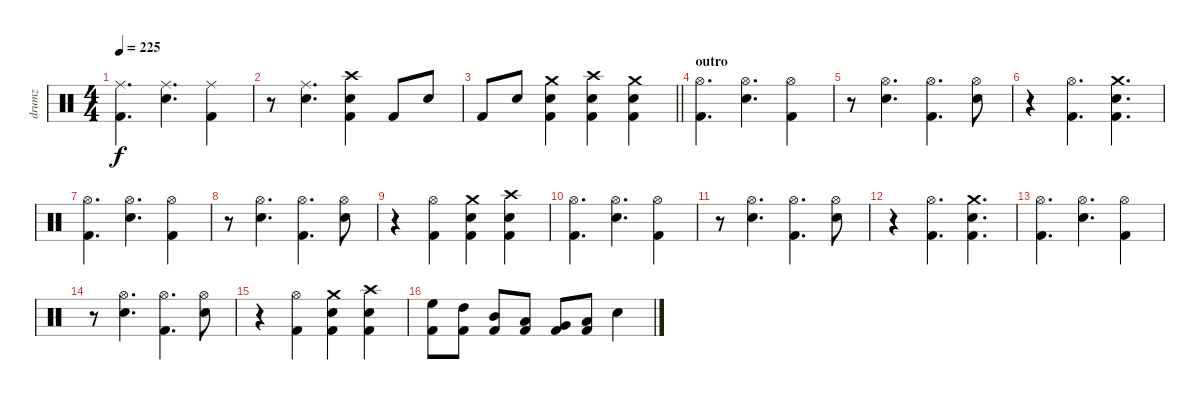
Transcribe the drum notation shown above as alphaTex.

\track ("drumz" "drumz") {instrument percussion}
\staff {score}
\articulation defaults
\ts (4 4)
\tempo 225
\clef neutral
\ks c
("Ride (middle)" "Kick (hit) 2").4{d dy f} ("Ride (middle)" "Electric Snare (hit)").4{d} ("Ride (middle)" "Kick (hit) 2").4 |
r.8 ("Ride (middle)" "Electric Snare (hit)").4{d} ("Crash high (hit)" "Electric Snare (hit)" "Kick (hit) 2").4 "Kick (hit) 2".8 "Electric Snare (hit)".8 |
\barLineRight lightlight "Kick (hit) 2".8 "Electric Snare (hit)".8
("Crash medium (hit)" "Electric Snare (hit)" "Kick (hit) 2").4 ("Crash high (hit)" "Electric Snare (hit)" "Kick (hit) 2").4 ("Crash medium (hit)" "Electric Snare (hit)" "Kick (hit) 2").4 |
\section ("" "outro")
("Hi-Hat (open)" "Kick (hit) 2").4{d} ("Hi-Hat (open)" "Electric Snare (hit)").4{d} ("Hi-Hat (open)" "Kick (hit) 2").4 |
r.8 ("Hi-Hat (open)" "Electric Snare (hit)").4{d} ("Hi-Hat (open)" "Kick (hit) 2").4{d} ("Hi-Hat (open)" "Electric Snare (hit)").8 |
r.4 ("Hi-Hat (open)" "Kick (hit) 2").4{d} ("Crash medium (hit)" "Electric Snare (hit)" "Kick (hit) 2").4{d} |
("Hi-Hat (open)" "Kick (hit) 2").4{d} ("Hi-Hat (open)" "Electric Snare (hit)").4{d} ("Hi-Hat (open)" "Kick (hit) 2").4 |
r.8 ("Hi-Hat (open)" "Electric Snare (hit)").4{d} ("Hi-Hat (open)" "Kick (hit) 2").4{d} ("Hi-Hat (open)" "Electric Snare (hit)").8 |
r.4 ("Hi-Hat (open)" "Kick (hit) 2").4 ("Crash medium (hit)" "Electric Snare (hit)" "Kick (hit) 2").4 ("Crash high (hit)" "Electric Snare (hit)" "Kick (hit) 2").4 |
("Hi-Hat (open)" "Kick (hit) 2").4{d} ("Hi-Hat (open)" "Electric Snare (hit)").4{d} ("Hi-Hat (open)" "Kick (hit) 2").4 |
r.8 ("Hi-Hat (open)" "Electric Snare (hit)").4{d} ("Hi-Hat (open)" "Kick (hit) 2").4{d} ("Hi-Hat (open)" "Electric Snare (hit)").8 |
r.4 ("Hi-Hat (open)" "Kick (hit) 2").4{d} ("Crash medium (hit)" "Electric Snare (hit)" "Kick (hit) 2").4{d} |
("Hi-Hat (open)" "Kick (hit) 2").4{d} ("Hi-Hat (open)" "Electric Snare (hit)").4{d} ("Hi-Hat (open)" "Kick (hit) 2").4 |
r.8 ("Hi-Hat (open)" "Electric Snare (hit)").4{d} ("Hi-Hat (open)" "Kick (hit) 2").4{d} ("Hi-Hat (open)" "Electric Snare (hit)").8 |
r.4 ("Hi-Hat (open)" "Kick (hit) 2").4 ("Crash medium (hit)" "Electric Snare (hit)" "Kick (hit) 2").4 ("Crash high (hit)" "Electric Snare (hit)" "Kick (hit) 2").4 |
("High Floor Tom (hit)" "Kick (hit) 2").8 ("High Tom (hit)" "Kick (hit) 2").8 ("Mid Tom (hit)" "Kick (hit) 2").8 ("Low Tom (hit)" "Kick (hit) 2").8 ("Very Low Tom (hit)" "Kick (hit) 2").8 ("Low Floor Tom (hit)" "Kick (hit) 2").8 "Electric Snare (hit)".4
